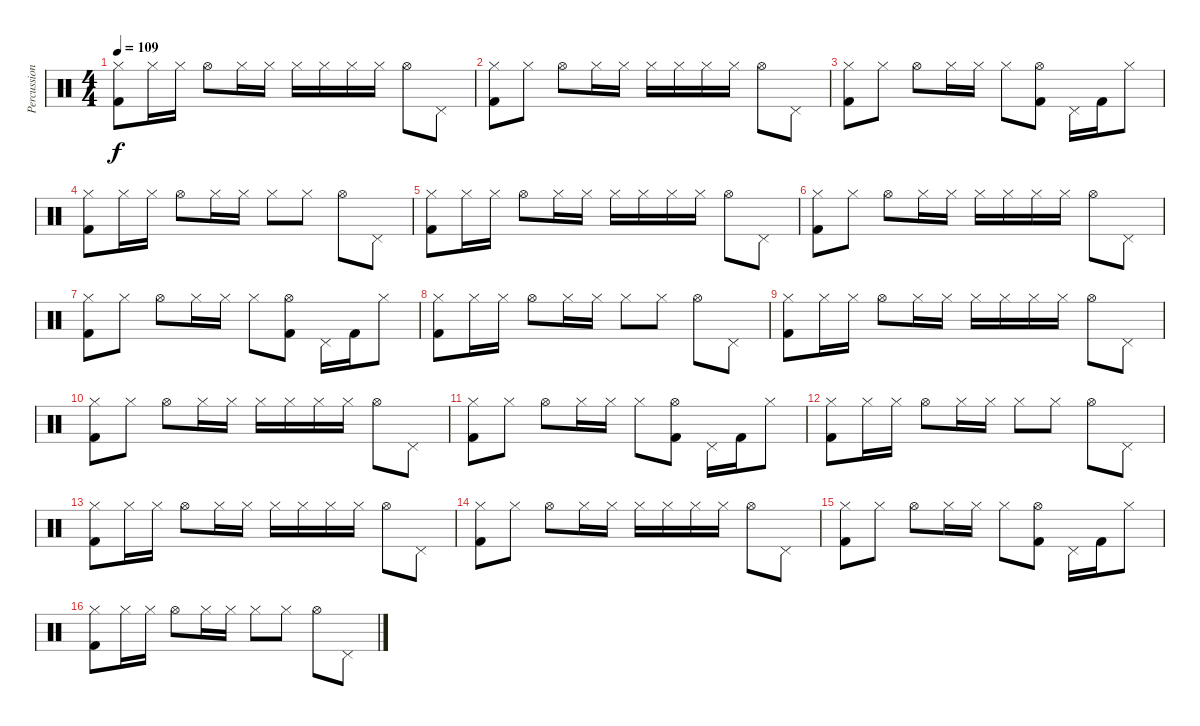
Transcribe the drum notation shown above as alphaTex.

\track ("Percussion" "Percussion") {instrument percussion}
\staff {score}
\articulation defaults
\ts (4 4)
\tempo 109
\clef neutral
\ks c
("Hi-Hat (closed)" "Kick (hit) 2").8{dy f} "Hi-Hat (closed)".16 "Hi-Hat (closed)".16 "Hi-Hat (open)".8 "Hi-Hat (closed)".16 "Hi-Hat (closed)".16 "Hi-Hat (closed)".16 "Hi-Hat (closed)".16 "Hi-Hat (closed)".16 "Hi-Hat (closed)".16 "Hi-Hat (open)".8 "Pedal Hi-Hat (hit)".8 |
("Hi-Hat (closed)" "Kick (hit) 2").8 "Hi-Hat (closed)".8 "Hi-Hat (open)".8 "Hi-Hat (closed)".16 "Hi-Hat (closed)".16 "Hi-Hat (closed)".16 "Hi-Hat (closed)".16 "Hi-Hat (closed)".16 "Hi-Hat (closed)".16 "Hi-Hat (open)".8 "Pedal Hi-Hat (hit)".8 |
("Hi-Hat (closed)" "Kick (hit) 2").8 "Hi-Hat (closed)".8 "Hi-Hat (open)".8 "Hi-Hat (closed)".16 "Hi-Hat (closed)".16 "Hi-Hat (closed)".8 ("Hi-Hat (open)" "Kick (hit) 2").8 "Pedal Hi-Hat (hit)".16 "Kick (hit) 2".16 "Hi-Hat (closed)".8 |
("Hi-Hat (closed)" "Kick (hit) 2").8{volume 7} "Hi-Hat (closed)".16 "Hi-Hat (closed)".16 "Hi-Hat (open)".8 "Hi-Hat (closed)".16 "Hi-Hat (closed)".16 "Hi-Hat (closed)".8 "Hi-Hat (closed)".8 "Hi-Hat (open)".8 "Pedal Hi-Hat (hit)".8 |
("Hi-Hat (closed)" "Kick (hit) 2").8 "Hi-Hat (closed)".16 "Hi-Hat (closed)".16 "Hi-Hat (open)".8 "Hi-Hat (closed)".16 "Hi-Hat (closed)".16 "Hi-Hat (closed)".16 "Hi-Hat (closed)".16 "Hi-Hat (closed)".16 "Hi-Hat (closed)".16 "Hi-Hat (open)".8 "Pedal Hi-Hat (hit)".8 |
("Hi-Hat (closed)" "Kick (hit) 2").8 "Hi-Hat (closed)".8 "Hi-Hat (open)".8 "Hi-Hat (closed)".16 "Hi-Hat (closed)".16 "Hi-Hat (closed)".16 "Hi-Hat (closed)".16 "Hi-Hat (closed)".16 "Hi-Hat (closed)".16 "Hi-Hat (open)".8 "Pedal Hi-Hat (hit)".8 |
("Hi-Hat (closed)" "Kick (hit) 2").8 "Hi-Hat (closed)".8 "Hi-Hat (open)".8 "Hi-Hat (closed)".16 "Hi-Hat (closed)".16 "Hi-Hat (closed)".8 ("Hi-Hat (open)" "Kick (hit) 2").8 "Pedal Hi-Hat (hit)".16 "Kick (hit) 2".16 "Hi-Hat (closed)".8 |
("Hi-Hat (closed)" "Kick (hit) 2").8{volume 7} "Hi-Hat (closed)".16 "Hi-Hat (closed)".16 "Hi-Hat (open)".8 "Hi-Hat (closed)".16 "Hi-Hat (closed)".16 "Hi-Hat (closed)".8 "Hi-Hat (closed)".8 "Hi-Hat (open)".8 "Pedal Hi-Hat (hit)".8 |
("Hi-Hat (closed)" "Kick (hit) 2").8 "Hi-Hat (closed)".16 "Hi-Hat (closed)".16 "Hi-Hat (open)".8 "Hi-Hat (closed)".16 "Hi-Hat (closed)".16 "Hi-Hat (closed)".16 "Hi-Hat (closed)".16 "Hi-Hat (closed)".16 "Hi-Hat (closed)".16 "Hi-Hat (open)".8 "Pedal Hi-Hat (hit)".8 |
("Hi-Hat (closed)" "Kick (hit) 2").8 "Hi-Hat (closed)".8 "Hi-Hat (open)".8 "Hi-Hat (closed)".16 "Hi-Hat (closed)".16 "Hi-Hat (closed)".16 "Hi-Hat (closed)".16 "Hi-Hat (closed)".16 "Hi-Hat (closed)".16 "Hi-Hat (open)".8 "Pedal Hi-Hat (hit)".8 |
("Hi-Hat (closed)" "Kick (hit) 2").8 "Hi-Hat (closed)".8 "Hi-Hat (open)".8 "Hi-Hat (closed)".16 "Hi-Hat (closed)".16 "Hi-Hat (closed)".8 ("Hi-Hat (open)" "Kick (hit) 2").8 "Pedal Hi-Hat (hit)".16 "Kick (hit) 2".16 "Hi-Hat (closed)".8 |
("Hi-Hat (closed)" "Kick (hit) 2").8{volume 7} "Hi-Hat (closed)".16 "Hi-Hat (closed)".16 "Hi-Hat (open)".8 "Hi-Hat (closed)".16 "Hi-Hat (closed)".16 "Hi-Hat (closed)".8 "Hi-Hat (closed)".8 "Hi-Hat (open)".8 "Pedal Hi-Hat (hit)".8 |
("Hi-Hat (closed)" "Kick (hit) 2").8 "Hi-Hat (closed)".16 "Hi-Hat (closed)".16 "Hi-Hat (open)".8 "Hi-Hat (closed)".16 "Hi-Hat (closed)".16 "Hi-Hat (closed)".16 "Hi-Hat (closed)".16 "Hi-Hat (closed)".16 "Hi-Hat (closed)".16 "Hi-Hat (open)".8 "Pedal Hi-Hat (hit)".8 |
("Hi-Hat (closed)" "Kick (hit) 2").8 "Hi-Hat (closed)".8 "Hi-Hat (open)".8 "Hi-Hat (closed)".16 "Hi-Hat (closed)".16 "Hi-Hat (closed)".16 "Hi-Hat (closed)".16 "Hi-Hat (closed)".16 "Hi-Hat (closed)".16 "Hi-Hat (open)".8 "Pedal Hi-Hat (hit)".8 |
("Hi-Hat (closed)" "Kick (hit) 2").8 "Hi-Hat (closed)".8 "Hi-Hat (open)".8 "Hi-Hat (closed)".16 "Hi-Hat (closed)".16 "Hi-Hat (closed)".8 ("Hi-Hat (open)" "Kick (hit) 2").8 "Pedal Hi-Hat (hit)".16 "Kick (hit) 2".16 "Hi-Hat (closed)".8 |
("Hi-Hat (closed)" "Kick (hit) 2").8{volume 7} "Hi-Hat (closed)".16 "Hi-Hat (closed)".16 "Hi-Hat (open)".8 "Hi-Hat (closed)".16 "Hi-Hat (closed)".16 "Hi-Hat (closed)".8 "Hi-Hat (closed)".8 "Hi-Hat (open)".8 "Pedal Hi-Hat (hit)".8
